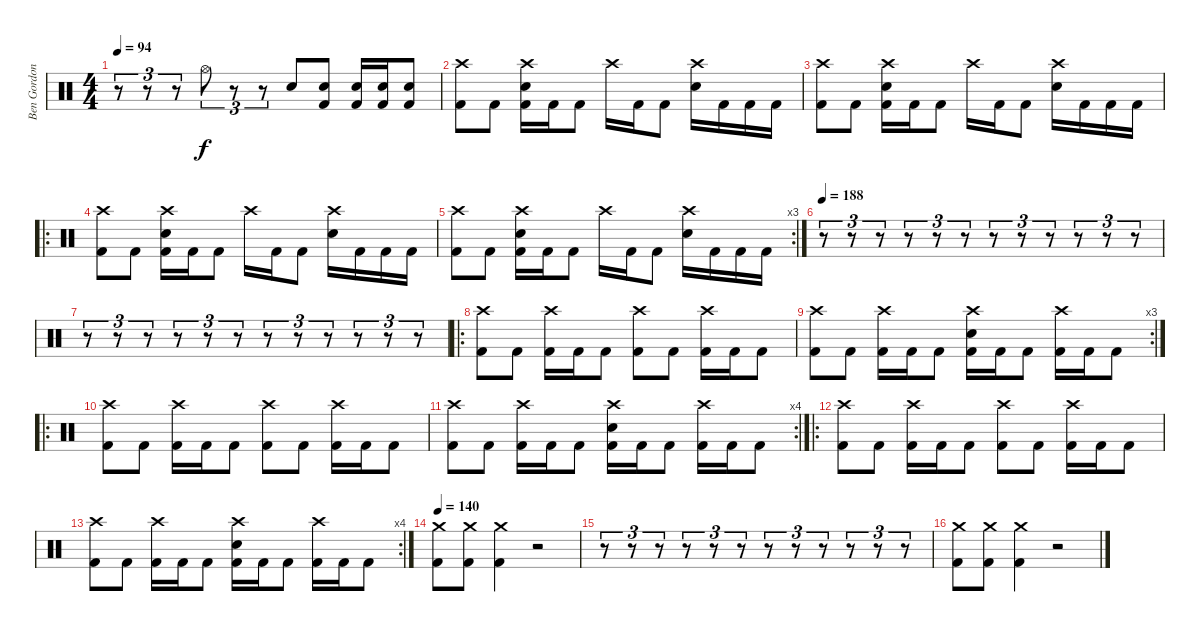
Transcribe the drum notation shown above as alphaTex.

\track ("Ben Gordon" "Ben Gordon") {instrument percussion}
\staff {score}
\articulation defaults
\ts (4 4)
\tempo 94
\clef neutral
\ks c
r.8{tu (3 2) dy f} r.8{tu (3 2)} r.8{tu (3 2)} "Hi-Hat (open)".8{tu (3 2)} r.8{tu (3 2)} r.8{tu (3 2)} "Electric Snare (hit)".8 ("Electric Snare (hit)" "Kick (hit) 2").8 ("Electric Snare (hit)" "Kick (hit) 2").16 ("Electric Snare (hit)" "Kick (hit) 2").16 ("Electric Snare (hit)" "Kick (hit) 2").8 |
("Crash high (hit)" "Kick (hit) 2").8 "Kick (hit) 2".8 ("Electric Snare (hit)" "Crash high (hit)" "Kick (hit) 2").16 "Kick (hit) 2".16 "Kick (hit) 2".8 "Crash high (hit)".16 "Kick (hit) 2".16 "Kick (hit) 2".8 ("Electric Snare (hit)" "Crash high (hit)").16 "Kick (hit) 2".16 "Kick (hit) 2".16 "Kick (hit) 2".16 |
("Crash high (hit)" "Kick (hit) 2").8 "Kick (hit) 2".8 ("Electric Snare (hit)" "Crash high (hit)" "Kick (hit) 2").16 "Kick (hit) 2".16 "Kick (hit) 2".8 "Crash high (hit)".16 "Kick (hit) 2".16 "Kick (hit) 2".8 ("Electric Snare (hit)" "Crash high (hit)").16 "Kick (hit) 2".16 "Kick (hit) 2".16 "Kick (hit) 2".16 |
\ro
("Crash high (hit)" "Kick (hit) 2").8 "Kick (hit) 2".8 ("Electric Snare (hit)" "Crash high (hit)" "Kick (hit) 2").16 "Kick (hit) 2".16 "Kick (hit) 2".8 "Crash high (hit)".16 "Kick (hit) 2".16 "Kick (hit) 2".8 ("Electric Snare (hit)" "Crash high (hit)").16 "Kick (hit) 2".16 "Kick (hit) 2".16 "Kick (hit) 2".16 |
\rc 3
("Crash high (hit)" "Kick (hit) 2").8 "Kick (hit) 2".8 ("Electric Snare (hit)" "Crash high (hit)" "Kick (hit) 2").16 "Kick (hit) 2".16 "Kick (hit) 2".8 "Crash high (hit)".16 "Kick (hit) 2".16 "Kick (hit) 2".8 ("Electric Snare (hit)" "Crash high (hit)").16 "Kick (hit) 2".16 "Kick (hit) 2".16 "Kick (hit) 2".16 |
\tempo 188
r.8{tu (3 2)} r.8{tu (3 2)} r.8{tu (3 2)} r.8{tu (3 2)} r.8{tu (3 2)} r.8{tu (3 2)} r.8{tu (3 2)} r.8{tu (3 2)} r.8{tu (3 2)} r.8{tu (3 2)} r.8{tu (3 2)} r.8{tu (3 2)} |
r.8{tu (3 2)} r.8{tu (3 2)} r.8{tu (3 2)} r.8{tu (3 2)} r.8{tu (3 2)} r.8{tu (3 2)} r.8{tu (3 2)} r.8{tu (3 2)} r.8{tu (3 2)} r.8{tu (3 2)} r.8{tu (3 2)} r.8{tu (3 2)} |
\ro
("Crash high (hit)" "Kick (hit) 2").8 "Kick (hit) 2".8 ("Crash high (hit)" "Kick (hit) 2").16 "Kick (hit) 2".16 "Kick (hit) 2".8 ("Crash high (hit)" "Kick (hit) 2").8 "Kick (hit) 2".8 ("Crash high (hit)" "Kick (hit) 2").16 "Kick (hit) 2".16 "Kick (hit) 2".8 |
\rc 3
("Crash high (hit)" "Kick (hit) 2").8 "Kick (hit) 2".8 ("Crash high (hit)" "Kick (hit) 2").16 "Kick (hit) 2".16 "Kick (hit) 2".8 ("Electric Snare (hit)" "Crash high (hit)" "Kick (hit) 2").16 "Kick (hit) 2".16 "Kick (hit) 2".8 ("Crash high (hit)" "Kick (hit) 2").16 "Kick (hit) 2".16 "Kick (hit) 2".8 |
\ro
("Crash high (hit)" "Kick (hit) 2").8 "Kick (hit) 2".8 ("Crash high (hit)" "Kick (hit) 2").16 "Kick (hit) 2".16 "Kick (hit) 2".8 ("Crash high (hit)" "Kick (hit) 2").8 "Kick (hit) 2".8 ("Crash high (hit)" "Kick (hit) 2").16 "Kick (hit) 2".16 "Kick (hit) 2".8 |
\rc 4
("Crash high (hit)" "Kick (hit) 2").8 "Kick (hit) 2".8 ("Crash high (hit)" "Kick (hit) 2").16 "Kick (hit) 2".16 "Kick (hit) 2".8 ("Electric Snare (hit)" "Crash high (hit)" "Kick (hit) 2").16 "Kick (hit) 2".16 "Kick (hit) 2".8 ("Crash high (hit)" "Kick (hit) 2").16 "Kick (hit) 2".16 "Kick (hit) 2".8 |
\ro
("Crash high (hit)" "Kick (hit) 2").8 "Kick (hit) 2".8 ("Crash high (hit)" "Kick (hit) 2").16 "Kick (hit) 2".16 "Kick (hit) 2".8 ("Crash high (hit)" "Kick (hit) 2").8 "Kick (hit) 2".8 ("Crash high (hit)" "Kick (hit) 2").16 "Kick (hit) 2".16 "Kick (hit) 2".8 |
\rc 4
("Crash high (hit)" "Kick (hit) 2").8 "Kick (hit) 2".8 ("Crash high (hit)" "Kick (hit) 2").16 "Kick (hit) 2".16 "Kick (hit) 2".8 ("Electric Snare (hit)" "Crash high (hit)" "Kick (hit) 2").16 "Kick (hit) 2".16 "Kick (hit) 2".8 ("Crash high (hit)" "Kick (hit) 2").16 "Kick (hit) 2".16 "Kick (hit) 2".8 |
\tempo 140
("Crash medium (hit)" "Kick (hit) 2").8 ("Crash medium (hit)" "Kick (hit) 2").8 ("Crash medium (hit)" "Kick (hit) 2").4 r.2 |
r.8{tu (3 2)} r.8{tu (3 2)} r.8{tu (3 2)} r.8{tu (3 2)} r.8{tu (3 2)} r.8{tu (3 2)} r.8{tu (3 2)} r.8{tu (3 2)} r.8{tu (3 2)} r.8{tu (3 2)} r.8{tu (3 2)} r.8{tu (3 2)} |
("Crash medium (hit)" "Kick (hit) 2").8 ("Crash medium (hit)" "Kick (hit) 2").8 ("Crash medium (hit)" "Kick (hit) 2").4 r.2
